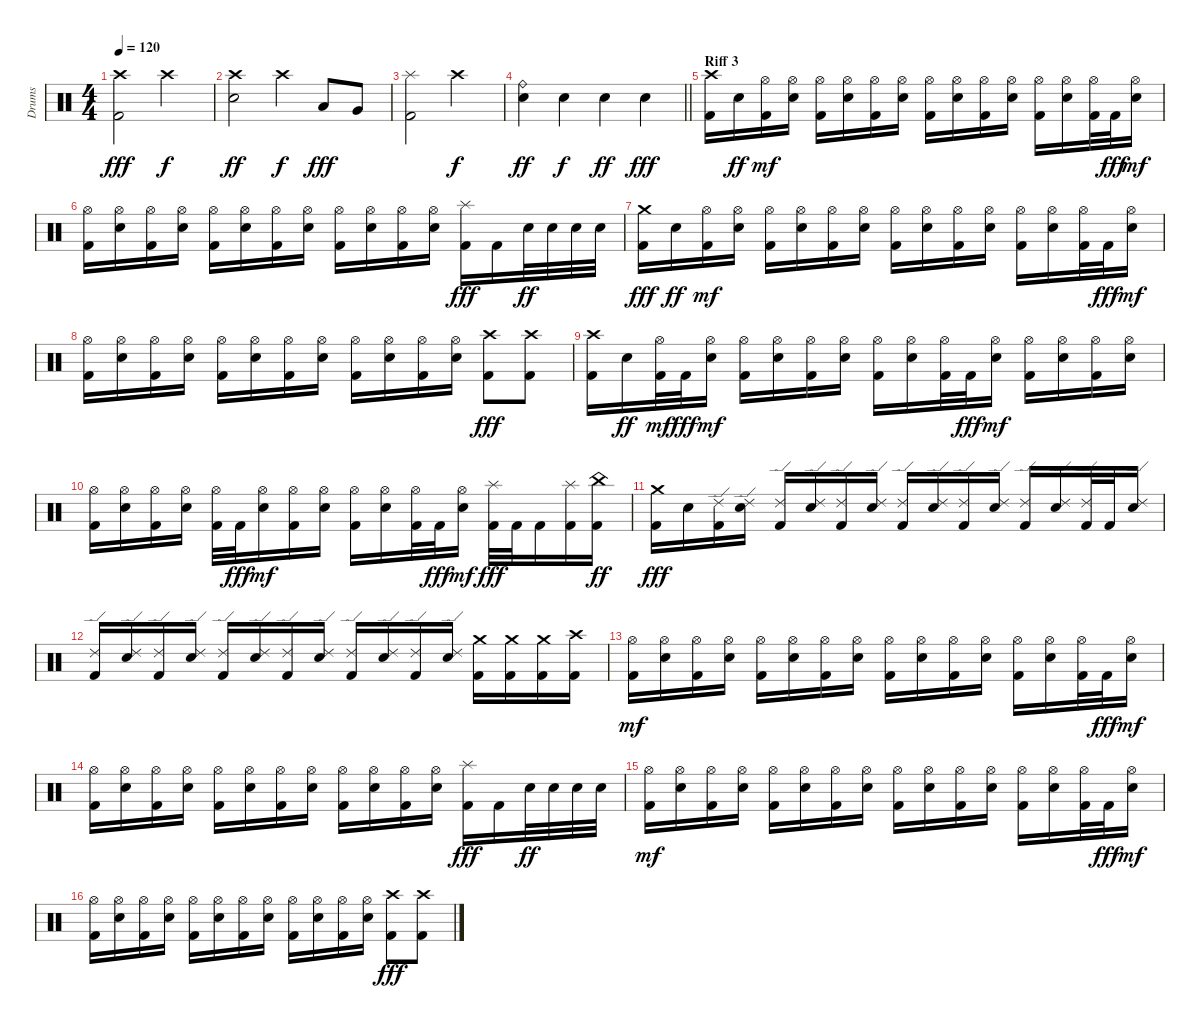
\track ("Drums" "Drums") {instrument percussion}
\staff {score}
\articulation defaults
\ts (4 4)
\tempo 120
\clef neutral
\ks c
("Kick (hit) 2" "Crash high (hit)").2{dy fff} "Crash high (hit)".2{dy f} |
("Snare (hit) 2" "Crash high (hit)").2{dy ff} "Crash high (hit)".4{dy f} "Low Tom (hit)".8{dy fff} "Very Low Tom (hit)".8 |
("Kick (hit) 2" "Splash (hit)").2 "Crash high (hit)".2{dy f} |
\barLineRight lightlight
("Snare (hit) 2" "Ride (bell)").4{dy ff} "Snare (hit) 2".4{dy f} "Snare (hit) 2".4{dy ff} "Snare (hit) 2".4{dy fff} |
\section ("" "Riff 3")
("Kick (hit) 2" "Crash high (hit)").16 "Snare (hit) 2".16{dy ff} ("Kick (hit) 2" "Hi-Hat (open)").16{dy mf} ("Snare (hit) 2" "Hi-Hat (open)").16 ("Kick (hit) 2" "Hi-Hat (open)").16 ("Snare (hit) 2" "Hi-Hat (open)").16 ("Kick (hit) 2" "Hi-Hat (open)").16 ("Snare (hit) 2" "Hi-Hat (open)").16 ("Kick (hit) 2" "Hi-Hat (open)").16 ("Snare (hit) 2" "Hi-Hat (open)").16 ("Kick (hit) 2" "Hi-Hat (open)").16 ("Snare (hit) 2" "Hi-Hat (open)").16 ("Kick (hit) 2" "Hi-Hat (open)").16 ("Snare (hit) 2" "Hi-Hat (open)").16 ("Kick (hit) 2" "Hi-Hat (open)").32 "Kick (hit) 2".32{dy fff} ("Snare (hit) 2" "Hi-Hat (open)").16{dy mf} |
("Kick (hit) 2" "Hi-Hat (open)").16 ("Snare (hit) 2" "Hi-Hat (open)").16 ("Kick (hit) 2" "Hi-Hat (open)").16 ("Snare (hit) 2" "Hi-Hat (open)").16 ("Kick (hit) 2" "Hi-Hat (open)").16 ("Snare (hit) 2" "Hi-Hat (open)").16 ("Kick (hit) 2" "Hi-Hat (open)").16 ("Snare (hit) 2" "Hi-Hat (open)").16 ("Kick (hit) 2" "Hi-Hat (open)").16 ("Snare (hit) 2" "Hi-Hat (open)").16 ("Kick (hit) 2" "Hi-Hat (open)").16 ("Snare (hit) 2" "Hi-Hat (open)").16 ("Kick (hit) 2" "Splash (hit)").16{dy fff} "Kick (hit) 2".16 "Snare (hit) 2".32{dy ff} "Snare (hit) 2".32 "Snare (hit) 2".32 "Snare (hit) 2".32 |
("Kick (hit) 2" "Crash medium (hit)").16{dy fff} "Snare (hit) 2".16{dy ff} ("Kick (hit) 2" "Hi-Hat (open)").16{dy mf} ("Snare (hit) 2" "Hi-Hat (open)").16 ("Kick (hit) 2" "Hi-Hat (open)").16 ("Snare (hit) 2" "Hi-Hat (open)").16 ("Kick (hit) 2" "Hi-Hat (open)").16 ("Snare (hit) 2" "Hi-Hat (open)").16 ("Kick (hit) 2" "Hi-Hat (open)").16 ("Snare (hit) 2" "Hi-Hat (open)").16 ("Kick (hit) 2" "Hi-Hat (open)").16 ("Snare (hit) 2" "Hi-Hat (open)").16 ("Kick (hit) 2" "Hi-Hat (open)").16 ("Snare (hit) 2" "Hi-Hat (open)").16 ("Kick (hit) 2" "Hi-Hat (open)").32 "Kick (hit) 2".32{dy fff} ("Snare (hit) 2" "Hi-Hat (open)").16{dy mf} |
("Kick (hit) 2" "Hi-Hat (open)").16 ("Snare (hit) 2" "Hi-Hat (open)").16 ("Kick (hit) 2" "Hi-Hat (open)").16 ("Snare (hit) 2" "Hi-Hat (open)").16 ("Kick (hit) 2" "Hi-Hat (open)").16 ("Snare (hit) 2" "Hi-Hat (open)").16 ("Kick (hit) 2" "Hi-Hat (open)").16 ("Snare (hit) 2" "Hi-Hat (open)").16 ("Kick (hit) 2" "Hi-Hat (open)").16 ("Snare (hit) 2" "Hi-Hat (open)").16 ("Kick (hit) 2" "Hi-Hat (open)").16 ("Snare (hit) 2" "Hi-Hat (open)").16 ("Kick (hit) 2" "Crash high (hit)").8{dy fff} ("Kick (hit) 2" "Crash high (hit)").8 |
("Kick (hit) 2" "Crash high (hit)").16 "Snare (hit) 2".16{dy ff} ("Kick (hit) 2" "Hi-Hat (open)").32{dy mf} "Kick (hit) 2".32{dy fff} ("Snare (hit) 2" "Hi-Hat (open)").16{dy mf} ("Kick (hit) 2" "Hi-Hat (open)").16 ("Snare (hit) 2" "Hi-Hat (open)").16 ("Kick (hit) 2" "Hi-Hat (open)").16 ("Snare (hit) 2" "Hi-Hat (open)").16 ("Kick (hit) 2" "Hi-Hat (open)").16 ("Snare (hit) 2" "Hi-Hat (open)").16 ("Kick (hit) 2" "Hi-Hat (open)").32 "Kick (hit) 2".32{dy fff} ("Snare (hit) 2" "Hi-Hat (open)").16{dy mf} ("Kick (hit) 2" "Hi-Hat (open)").16 ("Snare (hit) 2" "Hi-Hat (open)").16 ("Kick (hit) 2" "Hi-Hat (open)").16 ("Snare (hit) 2" "Hi-Hat (open)").16 |
("Kick (hit) 2" "Hi-Hat (open)").16 ("Snare (hit) 2" "Hi-Hat (open)").16 ("Kick (hit) 2" "Hi-Hat (open)").16 ("Snare (hit) 2" "Hi-Hat (open)").16 ("Kick (hit) 2" "Hi-Hat (open)").32 "Kick (hit) 2".32{dy fff} ("Snare (hit) 2" "Hi-Hat (open)").16{dy mf} ("Kick (hit) 2" "Hi-Hat (open)").16 ("Snare (hit) 2" "Hi-Hat (open)").16 ("Kick (hit) 2" "Hi-Hat (open)").16 ("Snare (hit) 2" "Hi-Hat (open)").16 ("Kick (hit) 2" "Hi-Hat (open)").32 "Kick (hit) 2".32{dy fff} ("Snare (hit) 2" "Hi-Hat (open)").16{dy mf} ("Kick (hit) 2" "Splash (hit)").32{dy fff} "Kick (hit) 2".32 "Kick (hit) 2".16 ("Kick (hit) 2" "Splash (hit)").16 ("Kick (hit) 2" "China (hit)").16{dy ff} |
("Kick (hit) 2" "Crash medium (hit)").16{dy fff} "Snare (hit) 2".16 ("Kick (hit) 2" "Ride (edge) 2").16 ("Snare (hit) 2" "Ride (edge) 2").16 ("Kick (hit) 2" "Ride (edge) 2").16 ("Snare (hit) 2" "Ride (edge) 2").16 ("Kick (hit) 2" "Ride (edge) 2").16 ("Snare (hit) 2" "Ride (edge) 2").16 ("Kick (hit) 2" "Ride (edge) 2").16 ("Snare (hit) 2" "Ride (edge) 2").16 ("Kick (hit) 2" "Ride (edge) 2").16 ("Snare (hit) 2" "Ride (edge) 2").16 ("Kick (hit) 2" "Ride (edge) 2").16 ("Snare (hit) 2" "Ride (edge) 2").16 ("Kick (hit) 2" "Ride (edge) 2").32 "Kick (hit) 2".32 ("Snare (hit) 2" "Ride (edge) 2").16 |
("Kick (hit) 2" "Ride (edge) 2").16 ("Snare (hit) 2" "Ride (edge) 2").16 ("Kick (hit) 2" "Ride (edge) 2").16 ("Snare (hit) 2" "Ride (edge) 2").16 ("Kick (hit) 2" "Ride (edge) 2").16 ("Snare (hit) 2" "Ride (edge) 2").16 ("Kick (hit) 2" "Ride (edge) 2").16 ("Snare (hit) 2" "Ride (edge) 2").16 ("Kick (hit) 2" "Ride (edge) 2").16 ("Snare (hit) 2" "Ride (edge) 2").16 ("Kick (hit) 2" "Ride (edge) 2").16 ("Snare (hit) 2" "Ride (edge) 2").16 ("Kick (hit) 2" "Crash medium (hit)").16 ("Kick (hit) 2" "Crash medium (hit)").16 ("Kick (hit) 2" "Crash medium (hit)").16 ("Kick (hit) 2" "Crash high (hit)").16 |
("Kick (hit) 2" "Hi-Hat (open)").16{dy mf} ("Snare (hit) 2" "Hi-Hat (open)").16 ("Kick (hit) 2" "Hi-Hat (open)").16 ("Snare (hit) 2" "Hi-Hat (open)").16 ("Kick (hit) 2" "Hi-Hat (open)").16 ("Snare (hit) 2" "Hi-Hat (open)").16 ("Kick (hit) 2" "Hi-Hat (open)").16 ("Snare (hit) 2" "Hi-Hat (open)").16 ("Kick (hit) 2" "Hi-Hat (open)").16 ("Snare (hit) 2" "Hi-Hat (open)").16 ("Kick (hit) 2" "Hi-Hat (open)").16 ("Snare (hit) 2" "Hi-Hat (open)").16 ("Kick (hit) 2" "Hi-Hat (open)").16 ("Snare (hit) 2" "Hi-Hat (open)").16 ("Kick (hit) 2" "Hi-Hat (open)").32 "Kick (hit) 2".32{dy fff} ("Snare (hit) 2" "Hi-Hat (open)").16{dy mf} |
("Kick (hit) 2" "Hi-Hat (open)").16 ("Snare (hit) 2" "Hi-Hat (open)").16 ("Kick (hit) 2" "Hi-Hat (open)").16 ("Snare (hit) 2" "Hi-Hat (open)").16 ("Kick (hit) 2" "Hi-Hat (open)").16 ("Snare (hit) 2" "Hi-Hat (open)").16 ("Kick (hit) 2" "Hi-Hat (open)").16 ("Snare (hit) 2" "Hi-Hat (open)").16 ("Kick (hit) 2" "Hi-Hat (open)").16 ("Snare (hit) 2" "Hi-Hat (open)").16 ("Kick (hit) 2" "Hi-Hat (open)").16 ("Snare (hit) 2" "Hi-Hat (open)").16 ("Kick (hit) 2" "Splash (hit)").16{dy fff} "Kick (hit) 2".16 "Snare (hit) 2".32{dy ff} "Snare (hit) 2".32 "Snare (hit) 2".32 "Snare (hit) 2".32 |
("Kick (hit) 2" "Hi-Hat (open)").16{dy mf} ("Snare (hit) 2" "Hi-Hat (open)").16 ("Kick (hit) 2" "Hi-Hat (open)").16 ("Snare (hit) 2" "Hi-Hat (open)").16 ("Kick (hit) 2" "Hi-Hat (open)").16 ("Snare (hit) 2" "Hi-Hat (open)").16 ("Kick (hit) 2" "Hi-Hat (open)").16 ("Snare (hit) 2" "Hi-Hat (open)").16 ("Kick (hit) 2" "Hi-Hat (open)").16 ("Snare (hit) 2" "Hi-Hat (open)").16 ("Kick (hit) 2" "Hi-Hat (open)").16 ("Snare (hit) 2" "Hi-Hat (open)").16 ("Kick (hit) 2" "Hi-Hat (open)").16 ("Snare (hit) 2" "Hi-Hat (open)").16 ("Kick (hit) 2" "Hi-Hat (open)").32 "Kick (hit) 2".32{dy fff} ("Snare (hit) 2" "Hi-Hat (open)").16{dy mf} |
("Kick (hit) 2" "Hi-Hat (open)").16 ("Snare (hit) 2" "Hi-Hat (open)").16 ("Kick (hit) 2" "Hi-Hat (open)").16 ("Snare (hit) 2" "Hi-Hat (open)").16 ("Kick (hit) 2" "Hi-Hat (open)").16 ("Snare (hit) 2" "Hi-Hat (open)").16 ("Kick (hit) 2" "Hi-Hat (open)").16 ("Snare (hit) 2" "Hi-Hat (open)").16 ("Kick (hit) 2" "Hi-Hat (open)").16 ("Snare (hit) 2" "Hi-Hat (open)").16 ("Kick (hit) 2" "Hi-Hat (open)").16 ("Snare (hit) 2" "Hi-Hat (open)").16 ("Kick (hit) 2" "Crash high (hit)").8{dy fff} ("Kick (hit) 2" "Crash high (hit)").8
